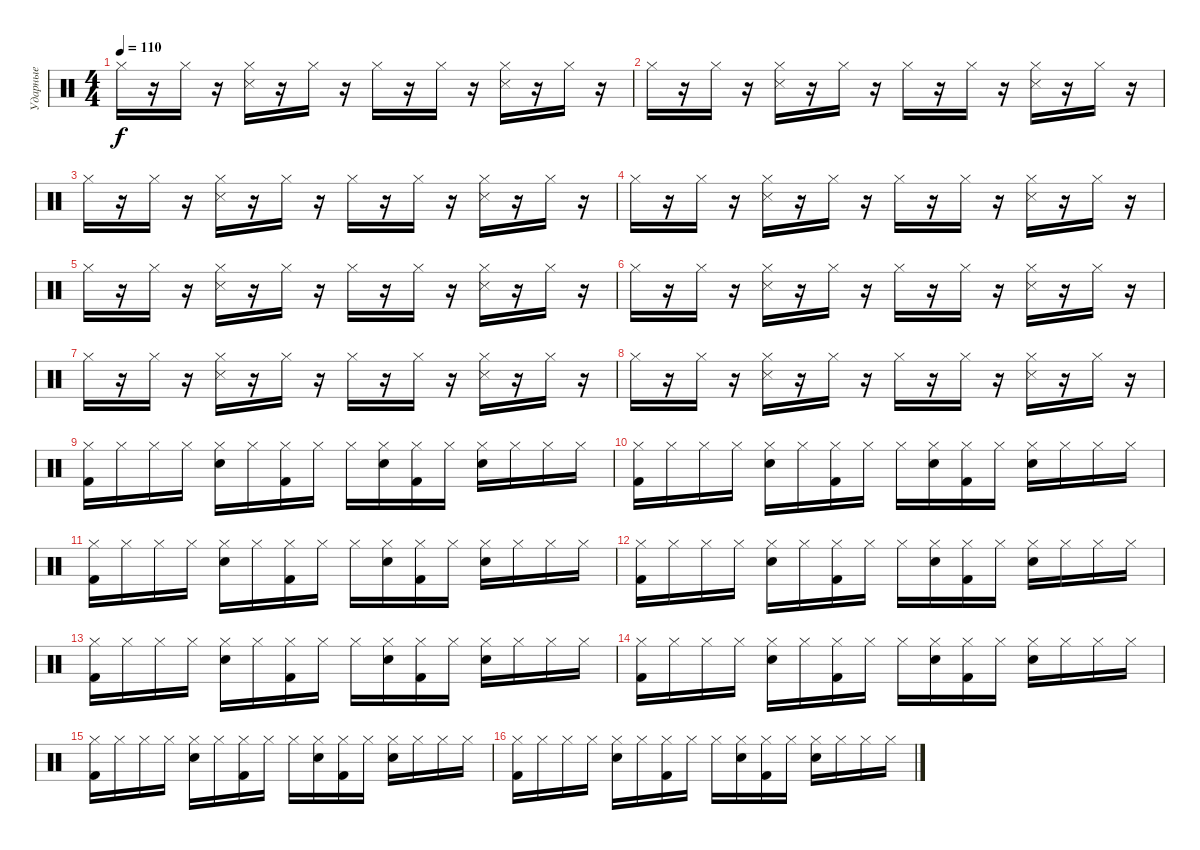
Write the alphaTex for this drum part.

\track ("Ударные" "Ударные") {instrument percussion}
\staff {score}
\articulation defaults
\ts (4 4)
\tempo 110
\clef neutral
\ks c "Hi-Hat (closed)".16{dy f}
r.16 "Hi-Hat (closed)".16 r.16 ("Hi-Hat (closed)" "Snare (side stick) 3").16 r.16 "Hi-Hat (closed)".16 r.16 "Hi-Hat (closed)".16 r.16 "Hi-Hat (closed)".16 r.16 ("Hi-Hat (closed)" "Snare (side stick) 3").16 r.16 "Hi-Hat (closed)".16 r.16 |
"Hi-Hat (closed)".16 r.16 "Hi-Hat (closed)".16 r.16 ("Hi-Hat (closed)" "Snare (side stick) 3").16 r.16 "Hi-Hat (closed)".16 r.16 "Hi-Hat (closed)".16 r.16 "Hi-Hat (closed)".16 r.16 ("Hi-Hat (closed)" "Snare (side stick) 3").16 r.16 "Hi-Hat (closed)".16 r.16 |
"Hi-Hat (closed)".16 r.16 "Hi-Hat (closed)".16 r.16 ("Hi-Hat (closed)" "Snare (side stick) 3").16 r.16 "Hi-Hat (closed)".16 r.16 "Hi-Hat (closed)".16 r.16 "Hi-Hat (closed)".16 r.16 ("Hi-Hat (closed)" "Snare (side stick) 3").16 r.16 "Hi-Hat (closed)".16 r.16 |
"Hi-Hat (closed)".16 r.16 "Hi-Hat (closed)".16 r.16 ("Hi-Hat (closed)" "Snare (side stick) 3").16 r.16 "Hi-Hat (closed)".16 r.16 "Hi-Hat (closed)".16 r.16 "Hi-Hat (closed)".16 r.16 ("Hi-Hat (closed)" "Snare (side stick) 3").16 r.16 "Hi-Hat (closed)".16 r.16 |
"Hi-Hat (closed)".16 r.16 "Hi-Hat (closed)".16 r.16 ("Hi-Hat (closed)" "Snare (side stick) 3").16 r.16 "Hi-Hat (closed)".16 r.16 "Hi-Hat (closed)".16 r.16 "Hi-Hat (closed)".16 r.16 ("Hi-Hat (closed)" "Snare (side stick) 3").16 r.16 "Hi-Hat (closed)".16 r.16 |
"Hi-Hat (closed)".16 r.16 "Hi-Hat (closed)".16 r.16 ("Hi-Hat (closed)" "Snare (side stick) 3").16 r.16 "Hi-Hat (closed)".16 r.16 "Hi-Hat (closed)".16 r.16 "Hi-Hat (closed)".16 r.16 ("Hi-Hat (closed)" "Snare (side stick) 3").16 r.16 "Hi-Hat (closed)".16 r.16 |
"Hi-Hat (closed)".16 r.16 "Hi-Hat (closed)".16 r.16 ("Hi-Hat (closed)" "Snare (side stick) 3").16 r.16 "Hi-Hat (closed)".16 r.16 "Hi-Hat (closed)".16 r.16 "Hi-Hat (closed)".16 r.16 ("Hi-Hat (closed)" "Snare (side stick) 3").16 r.16 "Hi-Hat (closed)".16 r.16 |
"Hi-Hat (closed)".16 r.16 "Hi-Hat (closed)".16 r.16 ("Hi-Hat (closed)" "Snare (side stick) 3").16 r.16 "Hi-Hat (closed)".16 r.16 "Hi-Hat (closed)".16 r.16 "Hi-Hat (closed)".16 r.16 ("Hi-Hat (closed)" "Snare (side stick) 3").16 r.16 "Hi-Hat (closed)".16 r.16 |
("Hi-Hat (closed)" "Kick (hit) 2").16 "Hi-Hat (closed)".16 "Hi-Hat (closed)".16 "Hi-Hat (closed)".16 ("Hi-Hat (closed)" "Snare (hit) 2").16 "Hi-Hat (closed)".16 ("Hi-Hat (closed)" "Kick (hit) 2").16 "Hi-Hat (closed)".16 "Hi-Hat (closed)".16 ("Hi-Hat (closed)" "Snare (hit) 2").16 ("Hi-Hat (closed)" "Kick (hit) 2").16 "Hi-Hat (closed)".16 ("Hi-Hat (closed)" "Snare (hit) 2").16 "Hi-Hat (closed)".16 "Hi-Hat (closed)".16 "Hi-Hat (closed)".16 |
("Hi-Hat (closed)" "Kick (hit) 2").16 "Hi-Hat (closed)".16 "Hi-Hat (closed)".16 "Hi-Hat (closed)".16 ("Hi-Hat (closed)" "Snare (hit) 2").16 "Hi-Hat (closed)".16 ("Hi-Hat (closed)" "Kick (hit) 2").16 "Hi-Hat (closed)".16 "Hi-Hat (closed)".16 ("Hi-Hat (closed)" "Snare (hit) 2").16 ("Hi-Hat (closed)" "Kick (hit) 2").16 "Hi-Hat (closed)".16 ("Hi-Hat (closed)" "Snare (hit) 2").16 "Hi-Hat (closed)".16 "Hi-Hat (closed)".16 "Hi-Hat (closed)".16 |
("Hi-Hat (closed)" "Kick (hit) 2").16 "Hi-Hat (closed)".16 "Hi-Hat (closed)".16 "Hi-Hat (closed)".16 ("Hi-Hat (closed)" "Snare (hit) 2").16 "Hi-Hat (closed)".16 ("Hi-Hat (closed)" "Kick (hit) 2").16 "Hi-Hat (closed)".16 "Hi-Hat (closed)".16 ("Hi-Hat (closed)" "Snare (hit) 2").16 ("Hi-Hat (closed)" "Kick (hit) 2").16 "Hi-Hat (closed)".16 ("Hi-Hat (closed)" "Snare (hit) 2").16 "Hi-Hat (closed)".16 "Hi-Hat (closed)".16 "Hi-Hat (closed)".16 |
("Hi-Hat (closed)" "Kick (hit) 2").16 "Hi-Hat (closed)".16 "Hi-Hat (closed)".16 "Hi-Hat (closed)".16 ("Hi-Hat (closed)" "Snare (hit) 2").16 "Hi-Hat (closed)".16 ("Hi-Hat (closed)" "Kick (hit) 2").16 "Hi-Hat (closed)".16 "Hi-Hat (closed)".16 ("Hi-Hat (closed)" "Snare (hit) 2").16 ("Hi-Hat (closed)" "Kick (hit) 2").16 "Hi-Hat (closed)".16 ("Hi-Hat (closed)" "Snare (hit) 2").16 "Hi-Hat (closed)".16 "Hi-Hat (closed)".16 "Hi-Hat (closed)".16 |
("Hi-Hat (closed)" "Kick (hit) 2").16 "Hi-Hat (closed)".16 "Hi-Hat (closed)".16 "Hi-Hat (closed)".16 ("Hi-Hat (closed)" "Snare (hit) 2").16 "Hi-Hat (closed)".16 ("Hi-Hat (closed)" "Kick (hit) 2").16 "Hi-Hat (closed)".16 "Hi-Hat (closed)".16 ("Hi-Hat (closed)" "Snare (hit) 2").16 ("Hi-Hat (closed)" "Kick (hit) 2").16 "Hi-Hat (closed)".16 ("Hi-Hat (closed)" "Snare (hit) 2").16 "Hi-Hat (closed)".16 "Hi-Hat (closed)".16 "Hi-Hat (closed)".16 |
("Hi-Hat (closed)" "Kick (hit) 2").16 "Hi-Hat (closed)".16 "Hi-Hat (closed)".16 "Hi-Hat (closed)".16 ("Hi-Hat (closed)" "Snare (hit) 2").16 "Hi-Hat (closed)".16 ("Hi-Hat (closed)" "Kick (hit) 2").16 "Hi-Hat (closed)".16 "Hi-Hat (closed)".16 ("Hi-Hat (closed)" "Snare (hit) 2").16 ("Hi-Hat (closed)" "Kick (hit) 2").16 "Hi-Hat (closed)".16 ("Hi-Hat (closed)" "Snare (hit) 2").16 "Hi-Hat (closed)".16 "Hi-Hat (closed)".16 "Hi-Hat (closed)".16 |
("Hi-Hat (closed)" "Kick (hit) 2").16 "Hi-Hat (closed)".16 "Hi-Hat (closed)".16 "Hi-Hat (closed)".16 ("Hi-Hat (closed)" "Snare (hit) 2").16 "Hi-Hat (closed)".16 ("Hi-Hat (closed)" "Kick (hit) 2").16 "Hi-Hat (closed)".16 "Hi-Hat (closed)".16 ("Hi-Hat (closed)" "Snare (hit) 2").16 ("Hi-Hat (closed)" "Kick (hit) 2").16 "Hi-Hat (closed)".16 ("Hi-Hat (closed)" "Snare (hit) 2").16 "Hi-Hat (closed)".16 "Hi-Hat (closed)".16 "Hi-Hat (closed)".16 |
("Hi-Hat (closed)" "Kick (hit) 2").16 "Hi-Hat (closed)".16 "Hi-Hat (closed)".16 "Hi-Hat (closed)".16 ("Hi-Hat (closed)" "Snare (hit) 2").16 "Hi-Hat (closed)".16 ("Hi-Hat (closed)" "Kick (hit) 2").16 "Hi-Hat (closed)".16 "Hi-Hat (closed)".16 ("Hi-Hat (closed)" "Snare (hit) 2").16 ("Hi-Hat (closed)" "Kick (hit) 2").16 "Hi-Hat (closed)".16 ("Hi-Hat (closed)" "Snare (hit) 2").16 "Hi-Hat (closed)".16 "Hi-Hat (closed)".16 "Hi-Hat (closed)".16
